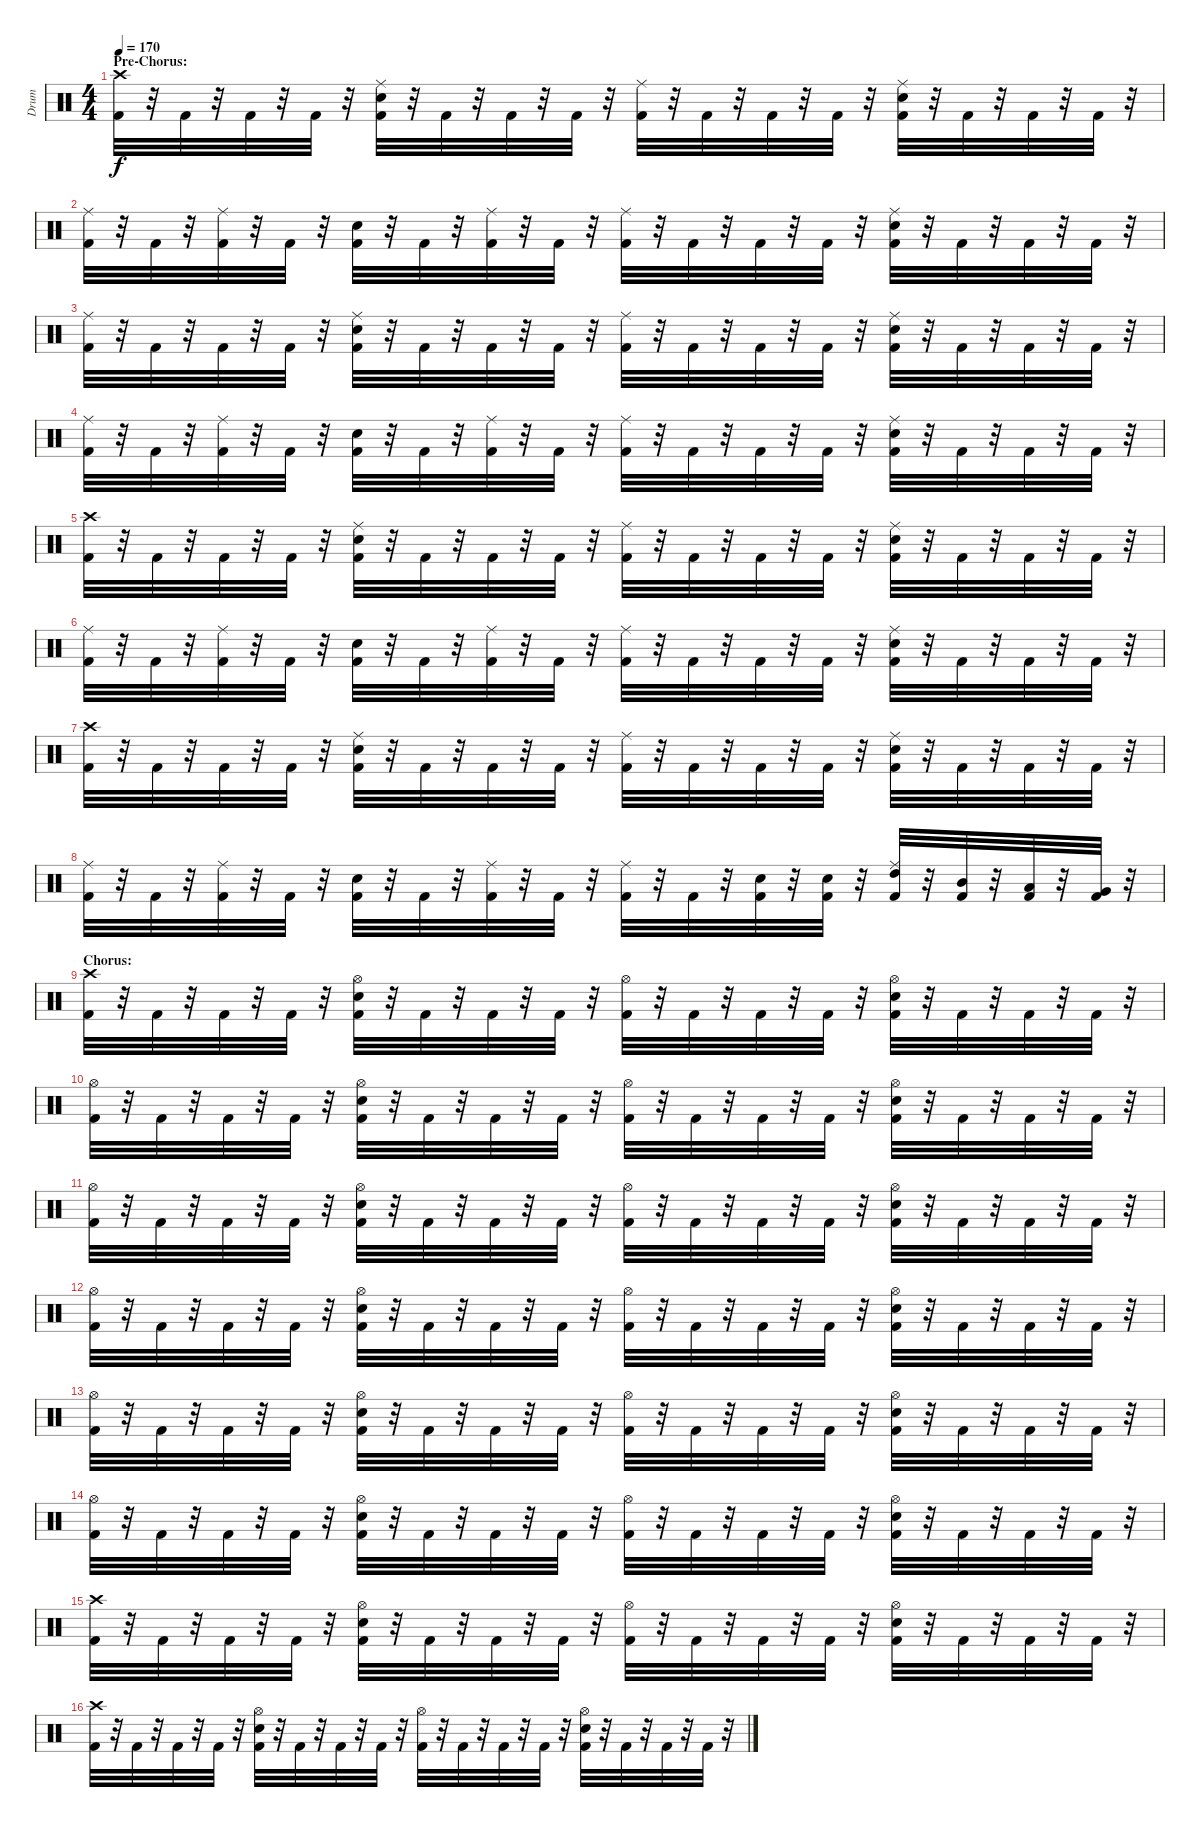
\track ("Drum" "Drum") {instrument percussion}
\staff {score}
\articulation defaults
\ts (4 4)
\section ("" "Pre-Chorus:")
\tempo 170
\clef neutral
\ks c
("Crash high (hit)" "Kick (hit) 2").32{dy f} r.32 "Kick (hit) 2".32 r.32 "Kick (hit) 2".32 r.32 "Kick (hit) 2".32 r.32 ("Kick (hit) 2" "Snare (hit) 2" "Ride (middle)").32 r.32 "Kick (hit) 2".32 r.32 "Kick (hit) 2".32 r.32 "Kick (hit) 2".32 r.32 ("Kick (hit) 2" "Ride (middle)").32 r.32 "Kick (hit) 2".32 r.32 "Kick (hit) 2".32 r.32 "Kick (hit) 2".32 r.32 ("Kick (hit) 2" "Snare (hit) 2" "Ride (middle)").32 r.32 "Kick (hit) 2".32 r.32 "Kick (hit) 2".32 r.32 "Kick (hit) 2".32 r.32 |
("Kick (hit) 2" "Ride (middle)").32 r.32 "Kick (hit) 2".32 r.32 ("Kick (hit) 2" "Ride (middle)").32 r.32 "Kick (hit) 2".32 r.32 ("Kick (hit) 2" "Snare (hit) 2").32 r.32 "Kick (hit) 2".32 r.32 ("Kick (hit) 2" "Ride (middle)").32 r.32 "Kick (hit) 2".32 r.32 ("Kick (hit) 2" "Ride (middle)").32 r.32 "Kick (hit) 2".32 r.32 "Kick (hit) 2".32 r.32 "Kick (hit) 2".32 r.32 ("Kick (hit) 2" "Snare (hit) 2" "Ride (middle)").32 r.32 "Kick (hit) 2".32 r.32 "Kick (hit) 2".32 r.32 "Kick (hit) 2".32 r.32 |
("Kick (hit) 2" "Ride (middle)").32 r.32 "Kick (hit) 2".32 r.32 "Kick (hit) 2".32 r.32 "Kick (hit) 2".32 r.32 ("Kick (hit) 2" "Ride (middle)" "Snare (hit) 2").32 r.32 "Kick (hit) 2".32 r.32 "Kick (hit) 2".32 r.32 "Kick (hit) 2".32 r.32 ("Kick (hit) 2" "Ride (middle)").32 r.32 "Kick (hit) 2".32 r.32 "Kick (hit) 2".32 r.32 "Kick (hit) 2".32 r.32 ("Kick (hit) 2" "Ride (middle)" "Snare (hit) 2").32 r.32 "Kick (hit) 2".32 r.32 "Kick (hit) 2".32 r.32 "Kick (hit) 2".32 r.32 |
("Kick (hit) 2" "Ride (middle)").32 r.32 "Kick (hit) 2".32 r.32 ("Kick (hit) 2" "Ride (middle)").32 r.32 "Kick (hit) 2".32 r.32 ("Kick (hit) 2" "Snare (hit) 2").32 r.32 "Kick (hit) 2".32 r.32 ("Kick (hit) 2" "Ride (middle)").32 r.32 "Kick (hit) 2".32 r.32 ("Kick (hit) 2" "Ride (middle)").32 r.32 "Kick (hit) 2".32 r.32 "Kick (hit) 2".32 r.32 "Kick (hit) 2".32 r.32 ("Kick (hit) 2" "Ride (middle)" "Snare (hit) 2").32 r.32 "Kick (hit) 2".32 r.32 "Kick (hit) 2".32 r.32 "Kick (hit) 2".32 r.32 |
("Kick (hit) 2" "Crash high (hit)").32 r.32 "Kick (hit) 2".32 r.32 "Kick (hit) 2".32 r.32 "Kick (hit) 2".32 r.32 ("Kick (hit) 2" "Ride (middle)" "Snare (hit) 2").32 r.32 "Kick (hit) 2".32 r.32 "Kick (hit) 2".32 r.32 "Kick (hit) 2".32 r.32 ("Kick (hit) 2" "Ride (middle)").32 r.32 "Kick (hit) 2".32 r.32 "Kick (hit) 2".32 r.32 "Kick (hit) 2".32 r.32 ("Kick (hit) 2" "Ride (middle)" "Snare (hit) 2").32 r.32 "Kick (hit) 2".32 r.32 "Kick (hit) 2".32 r.32 "Kick (hit) 2".32 r.32 |
("Kick (hit) 2" "Ride (middle)").32 r.32 "Kick (hit) 2".32 r.32 ("Kick (hit) 2" "Ride (middle)").32 r.32 "Kick (hit) 2".32 r.32 ("Kick (hit) 2" "Snare (hit) 2").32 r.32 "Kick (hit) 2".32 r.32 ("Kick (hit) 2" "Ride (middle)").32 r.32 "Kick (hit) 2".32 r.32 ("Kick (hit) 2" "Ride (middle)").32 r.32 "Kick (hit) 2".32 r.32 "Kick (hit) 2".32 r.32 "Kick (hit) 2".32 r.32 ("Kick (hit) 2" "Ride (middle)" "Snare (hit) 2").32 r.32 "Kick (hit) 2".32 r.32 "Kick (hit) 2".32 r.32 "Kick (hit) 2".32 r.32 |
("Crash high (hit)" "Kick (hit) 2").32 r.32 "Kick (hit) 2".32 r.32 "Kick (hit) 2".32 r.32 "Kick (hit) 2".32 r.32 ("Kick (hit) 2" "Ride (middle)" "Snare (hit) 2").32 r.32 "Kick (hit) 2".32 r.32 "Kick (hit) 2".32 r.32 "Kick (hit) 2".32 r.32 ("Kick (hit) 2" "Ride (middle)").32 r.32 "Kick (hit) 2".32 r.32 "Kick (hit) 2".32 r.32 "Kick (hit) 2".32 r.32 ("Kick (hit) 2" "Ride (middle)" "Snare (hit) 2").32 r.32 "Kick (hit) 2".32 r.32 "Kick (hit) 2".32 r.32 "Kick (hit) 2".32 r.32 |
("Kick (hit) 2" "Ride (middle)").32 r.32 "Kick (hit) 2".32 r.32 ("Kick (hit) 2" "Ride (middle)").32 r.32 "Kick (hit) 2".32 r.32 ("Kick (hit) 2" "Snare (hit) 2").32 r.32 "Kick (hit) 2".32 r.32 ("Kick (hit) 2" "Ride (middle)").32 r.32 "Kick (hit) 2".32 r.32 ("Kick (hit) 2" "Ride (middle)").32 r.32 "Kick (hit) 2".32 r.32 ("Kick (hit) 2" "Snare (hit) 2").32 r.32 ("Kick (hit) 2" "Snare (hit) 2").32 r.32 ("Kick (hit) 2" "Ride (middle)" "High Tom (hit)").32 r.32 ("Kick (hit) 2" "Mid Tom (hit)").32 r.32 ("Kick (hit) 2" "Low Tom (hit)").32 r.32 ("Kick (hit) 2" "Very Low Tom (hit)").32 r.32 |
\section ("" "Chorus:")
("Kick (hit) 2" "Crash high (hit)").32 r.32 "Kick (hit) 2".32 r.32 "Kick (hit) 2".32 r.32 "Kick (hit) 2".32 r.32 ("Kick (hit) 2" "Snare (hit) 2" "Hi-Hat (open)").32 r.32 "Kick (hit) 2".32 r.32 "Kick (hit) 2".32 r.32 "Kick (hit) 2".32 r.32 ("Kick (hit) 2" "Hi-Hat (open)").32 r.32 "Kick (hit) 2".32 r.32 "Kick (hit) 2".32 r.32 "Kick (hit) 2".32 r.32 ("Kick (hit) 2" "Snare (hit) 2" "Hi-Hat (open)").32 r.32 "Kick (hit) 2".32 r.32 "Kick (hit) 2".32 r.32 "Kick (hit) 2".32 r.32 |
("Kick (hit) 2" "Hi-Hat (open)").32 r.32 "Kick (hit) 2".32 r.32 "Kick (hit) 2".32 r.32 "Kick (hit) 2".32 r.32 ("Kick (hit) 2" "Hi-Hat (open)" "Snare (hit) 2").32 r.32 "Kick (hit) 2".32 r.32 "Kick (hit) 2".32 r.32 "Kick (hit) 2".32 r.32 ("Kick (hit) 2" "Hi-Hat (open)").32 r.32 "Kick (hit) 2".32 r.32 "Kick (hit) 2".32 r.32 "Kick (hit) 2".32 r.32 ("Kick (hit) 2" "Hi-Hat (open)" "Snare (hit) 2").32 r.32 "Kick (hit) 2".32 r.32 "Kick (hit) 2".32 r.32 "Kick (hit) 2".32 r.32 |
("Kick (hit) 2" "Hi-Hat (open)").32 r.32 "Kick (hit) 2".32 r.32 "Kick (hit) 2".32 r.32 "Kick (hit) 2".32 r.32 ("Kick (hit) 2" "Hi-Hat (open)" "Snare (hit) 2").32 r.32 "Kick (hit) 2".32 r.32 "Kick (hit) 2".32 r.32 "Kick (hit) 2".32 r.32 ("Kick (hit) 2" "Hi-Hat (open)").32 r.32 "Kick (hit) 2".32 r.32 "Kick (hit) 2".32 r.32 "Kick (hit) 2".32 r.32 ("Kick (hit) 2" "Hi-Hat (open)" "Snare (hit) 2").32 r.32 "Kick (hit) 2".32 r.32 "Kick (hit) 2".32 r.32 "Kick (hit) 2".32 r.32 |
("Kick (hit) 2" "Hi-Hat (open)").32 r.32 "Kick (hit) 2".32 r.32 "Kick (hit) 2".32 r.32 "Kick (hit) 2".32 r.32 ("Kick (hit) 2" "Snare (hit) 2" "Hi-Hat (open)").32 r.32 "Kick (hit) 2".32 r.32 "Kick (hit) 2".32 r.32 "Kick (hit) 2".32 r.32 ("Kick (hit) 2" "Hi-Hat (open)").32 r.32 "Kick (hit) 2".32 r.32 "Kick (hit) 2".32 r.32 "Kick (hit) 2".32 r.32 ("Kick (hit) 2" "Snare (hit) 2" "Hi-Hat (open)").32 r.32 "Kick (hit) 2".32 r.32 "Kick (hit) 2".32 r.32 "Kick (hit) 2".32 r.32 |
("Kick (hit) 2" "Hi-Hat (open)").32 r.32 "Kick (hit) 2".32 r.32 "Kick (hit) 2".32 r.32 "Kick (hit) 2".32 r.32 ("Kick (hit) 2" "Hi-Hat (open)" "Snare (hit) 2").32 r.32 "Kick (hit) 2".32 r.32 "Kick (hit) 2".32 r.32 "Kick (hit) 2".32 r.32 ("Kick (hit) 2" "Hi-Hat (open)").32 r.32 "Kick (hit) 2".32 r.32 "Kick (hit) 2".32 r.32 "Kick (hit) 2".32 r.32 ("Kick (hit) 2" "Hi-Hat (open)" "Snare (hit) 2").32 r.32 "Kick (hit) 2".32 r.32 "Kick (hit) 2".32 r.32 "Kick (hit) 2".32 r.32 |
("Kick (hit) 2" "Hi-Hat (open)").32 r.32 "Kick (hit) 2".32 r.32 "Kick (hit) 2".32 r.32 "Kick (hit) 2".32 r.32 ("Kick (hit) 2" "Snare (hit) 2" "Hi-Hat (open)").32 r.32 "Kick (hit) 2".32 r.32 "Kick (hit) 2".32 r.32 "Kick (hit) 2".32 r.32 ("Kick (hit) 2" "Hi-Hat (open)").32 r.32 "Kick (hit) 2".32 r.32 "Kick (hit) 2".32 r.32 "Kick (hit) 2".32 r.32 ("Kick (hit) 2" "Snare (hit) 2" "Hi-Hat (open)").32 r.32 "Kick (hit) 2".32 r.32 "Kick (hit) 2".32 r.32 "Kick (hit) 2".32 r.32 |
("Kick (hit) 2" "Crash high (hit)").32 r.32 "Kick (hit) 2".32 r.32 "Kick (hit) 2".32 r.32 "Kick (hit) 2".32 r.32 ("Kick (hit) 2" "Snare (hit) 2" "Hi-Hat (open)").32 r.32 "Kick (hit) 2".32 r.32 "Kick (hit) 2".32 r.32 "Kick (hit) 2".32 r.32 ("Kick (hit) 2" "Hi-Hat (open)").32 r.32 "Kick (hit) 2".32 r.32 "Kick (hit) 2".32 r.32 "Kick (hit) 2".32 r.32 ("Kick (hit) 2" "Snare (hit) 2" "Hi-Hat (open)").32 r.32 "Kick (hit) 2".32 r.32 "Kick (hit) 2".32 r.32 "Kick (hit) 2".32 r.32 |
("Crash high (hit)" "Kick (hit) 2").32 r.32 "Kick (hit) 2".32 r.32 "Kick (hit) 2".32 r.32 "Kick (hit) 2".32 r.32 ("Kick (hit) 2" "Hi-Hat (open)" "Snare (hit) 2").32 r.32 "Kick (hit) 2".32 r.32 "Kick (hit) 2".32 r.32 "Kick (hit) 2".32 r.32 ("Kick (hit) 2" "Hi-Hat (open)").32 r.32 "Kick (hit) 2".32 r.32 "Kick (hit) 2".32 r.32 "Kick (hit) 2".32 r.32 ("Kick (hit) 2" "Hi-Hat (open)" "Snare (hit) 2").32 r.32 "Kick (hit) 2".32 r.32 "Kick (hit) 2".32 r.32 "Kick (hit) 2".32 r.32
